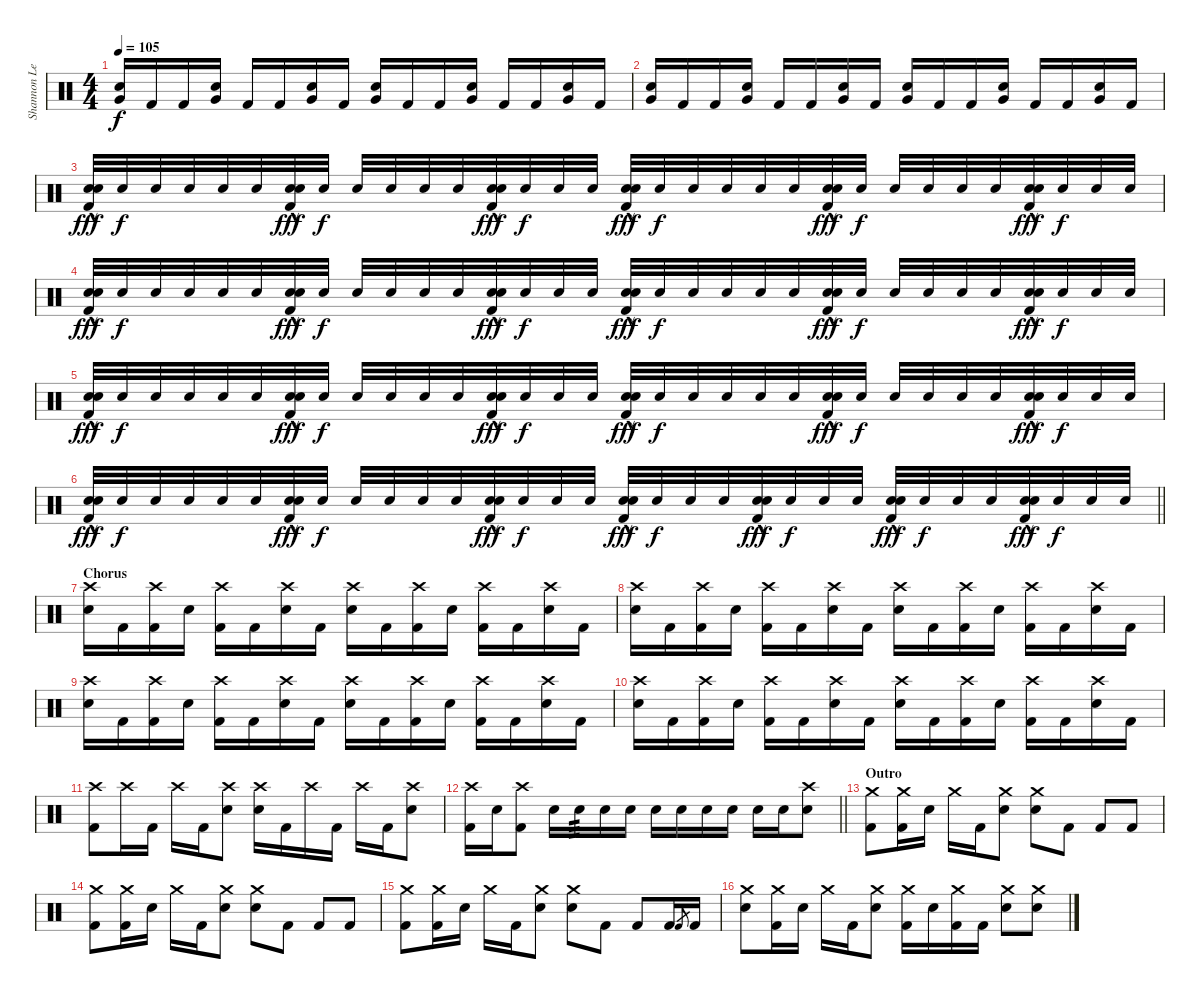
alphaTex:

\track ("Shannon Leto - Drums" "Shannon Le") {instrument percussion}
\staff {score}
\articulation defaults
\ts (4 4)
\tempo 105
\clef neutral
\ks c
("Electric Snare (hit)" "Very Low Tom (hit)").16{dy f} "Kick (hit) 2".16 "Kick (hit) 2".16 ("Electric Snare (hit)" "Very Low Tom (hit)").16 "Kick (hit) 2".16 "Kick (hit) 2".16 ("Electric Snare (hit)" "Very Low Tom (hit)").16 "Kick (hit) 2".16 ("Electric Snare (hit)" "Very Low Tom (hit)").16 "Kick (hit) 2".16 "Kick (hit) 2".16 ("Electric Snare (hit)" "Very Low Tom (hit)").16 "Kick (hit) 2".16 "Kick (hit) 2".16 ("Electric Snare (hit)" "Very Low Tom (hit)").16 "Kick (hit) 2".16 |
("Electric Snare (hit)" "Very Low Tom (hit)").16 "Kick (hit) 2".16 "Kick (hit) 2".16 ("Electric Snare (hit)" "Very Low Tom (hit)").16 "Kick (hit) 2".16 "Kick (hit) 2".16 ("Electric Snare (hit)" "Very Low Tom (hit)").16 "Kick (hit) 2".16 ("Electric Snare (hit)" "Very Low Tom (hit)").16 "Kick (hit) 2".16 "Kick (hit) 2".16 ("Electric Snare (hit)" "Very Low Tom (hit)").16 "Kick (hit) 2".16 "Kick (hit) 2".16 ("Electric Snare (hit)" "Very Low Tom (hit)").16 "Kick (hit) 2".16 |
("Electric Snare (hit)"{hac} "Electric Snare (hit)"{hac} "Kick (hit) 2").32{dy fff} "Electric Snare (hit)".32{dy f} "Electric Snare (hit)".32 "Electric Snare (hit)".32 "Electric Snare (hit)".32 "Electric Snare (hit)".32 ("Electric Snare (hit)"{hac} "Electric Snare (hit)"{hac} "Kick (hit) 2").32{dy fff} "Electric Snare (hit)".32{dy f} "Electric Snare (hit)".32 "Electric Snare (hit)".32 "Electric Snare (hit)".32 "Electric Snare (hit)".32 ("Electric Snare (hit)"{hac} "Electric Snare (hit)"{hac} "Kick (hit) 2").32{dy fff} "Electric Snare (hit)".32{dy f} "Electric Snare (hit)".32 "Electric Snare (hit)".32 ("Electric Snare (hit)"{hac} "Electric Snare (hit)"{hac} "Kick (hit) 2").32{dy fff} "Electric Snare (hit)".32{dy f} "Electric Snare (hit)".32 "Electric Snare (hit)".32 "Electric Snare (hit)".32 "Electric Snare (hit)".32 ("Electric Snare (hit)"{hac} "Electric Snare (hit)"{hac} "Kick (hit) 2").32{dy fff} "Electric Snare (hit)".32{dy f} "Electric Snare (hit)".32 "Electric Snare (hit)".32 "Electric Snare (hit)".32 "Electric Snare (hit)".32 ("Electric Snare (hit)"{hac} "Electric Snare (hit)"{hac} "Kick (hit) 2").32{dy fff} "Electric Snare (hit)".32{dy f} "Electric Snare (hit)".32 "Electric Snare (hit)".32 |
("Electric Snare (hit)"{hac} "Electric Snare (hit)"{hac} "Kick (hit) 2").32{dy fff} "Electric Snare (hit)".32{dy f} "Electric Snare (hit)".32 "Electric Snare (hit)".32 "Electric Snare (hit)".32 "Electric Snare (hit)".32 ("Electric Snare (hit)"{hac} "Electric Snare (hit)"{hac} "Kick (hit) 2").32{dy fff} "Electric Snare (hit)".32{dy f} "Electric Snare (hit)".32 "Electric Snare (hit)".32 "Electric Snare (hit)".32 "Electric Snare (hit)".32 ("Electric Snare (hit)"{hac} "Electric Snare (hit)"{hac} "Kick (hit) 2").32{dy fff} "Electric Snare (hit)".32{dy f} "Electric Snare (hit)".32 "Electric Snare (hit)".32 ("Electric Snare (hit)"{hac} "Electric Snare (hit)"{hac} "Kick (hit) 2").32{dy fff} "Electric Snare (hit)".32{dy f} "Electric Snare (hit)".32 "Electric Snare (hit)".32 "Electric Snare (hit)".32 "Electric Snare (hit)".32 ("Electric Snare (hit)"{hac} "Electric Snare (hit)"{hac} "Kick (hit) 2").32{dy fff} "Electric Snare (hit)".32{dy f} "Electric Snare (hit)".32 "Electric Snare (hit)".32 "Electric Snare (hit)".32 "Electric Snare (hit)".32 ("Electric Snare (hit)"{hac} "Electric Snare (hit)"{hac} "Kick (hit) 2").32{dy fff} "Electric Snare (hit)".32{dy f} "Electric Snare (hit)".32 "Electric Snare (hit)".32 |
("Electric Snare (hit)"{hac} "Electric Snare (hit)"{hac} "Kick (hit) 2").32{dy fff} "Electric Snare (hit)".32{dy f} "Electric Snare (hit)".32 "Electric Snare (hit)".32 "Electric Snare (hit)".32 "Electric Snare (hit)".32 ("Electric Snare (hit)"{hac} "Electric Snare (hit)"{hac} "Kick (hit) 2").32{dy fff} "Electric Snare (hit)".32{dy f} "Electric Snare (hit)".32 "Electric Snare (hit)".32 "Electric Snare (hit)".32 "Electric Snare (hit)".32 ("Electric Snare (hit)"{hac} "Electric Snare (hit)"{hac} "Kick (hit) 2").32{dy fff} "Electric Snare (hit)".32{dy f} "Electric Snare (hit)".32 "Electric Snare (hit)".32 ("Electric Snare (hit)"{hac} "Electric Snare (hit)"{hac} "Kick (hit) 2").32{dy fff} "Electric Snare (hit)".32{dy f} "Electric Snare (hit)".32 "Electric Snare (hit)".32 "Electric Snare (hit)".32 "Electric Snare (hit)".32 ("Electric Snare (hit)"{hac} "Electric Snare (hit)"{hac} "Kick (hit) 2").32{dy fff} "Electric Snare (hit)".32{dy f} "Electric Snare (hit)".32 "Electric Snare (hit)".32 "Electric Snare (hit)".32 "Electric Snare (hit)".32 ("Electric Snare (hit)"{hac} "Electric Snare (hit)"{hac} "Kick (hit) 2").32{dy fff} "Electric Snare (hit)".32{dy f} "Electric Snare (hit)".32 "Electric Snare (hit)".32 |
\barLineRight lightlight
("Electric Snare (hit)"{hac} "Electric Snare (hit)"{hac} "Kick (hit) 2").32{dy fff} "Electric Snare (hit)".32{dy f} "Electric Snare (hit)".32 "Electric Snare (hit)".32 "Electric Snare (hit)".32 "Electric Snare (hit)".32 ("Electric Snare (hit)"{hac} "Electric Snare (hit)"{hac} "Kick (hit) 2").32{dy fff} "Electric Snare (hit)".32{dy f} "Electric Snare (hit)".32 "Electric Snare (hit)".32 "Electric Snare (hit)".32 "Electric Snare (hit)".32 ("Electric Snare (hit)"{hac} "Electric Snare (hit)"{hac} "Kick (hit) 2").32{dy fff} "Electric Snare (hit)".32{dy f} "Electric Snare (hit)".32 "Electric Snare (hit)".32 ("Electric Snare (hit)"{hac} "Electric Snare (hit)"{hac} "Kick (hit) 2").32{dy fff} "Electric Snare (hit)".32{dy f} "Electric Snare (hit)".32 "Electric Snare (hit)".32 ("Electric Snare (hit)"{hac} "Electric Snare (hit)"{hac} "Kick (hit) 2").32{dy fff} "Electric Snare (hit)".32{dy f} "Electric Snare (hit)".32 "Electric Snare (hit)".32 ("Electric Snare (hit)"{hac} "Electric Snare (hit)"{hac} "Kick (hit) 2").32{dy fff} "Electric Snare (hit)".32{dy f} "Electric Snare (hit)".32 "Electric Snare (hit)".32 ("Electric Snare (hit)"{hac} "Electric Snare (hit)"{hac} "Kick (hit) 2").32{dy fff} "Electric Snare (hit)".32{dy f} "Electric Snare (hit)".32 "Electric Snare (hit)".32 |
\section ("" "Chorus")
("Crash high (hit)" "Electric Snare (hit)").16 "Kick (hit) 2".16 ("Crash high (hit)" "Kick (hit) 2").16 "Electric Snare (hit)".16 ("Crash high (hit)" "Kick (hit) 2").16 "Kick (hit) 2".16 ("Crash high (hit)" "Electric Snare (hit)").16 "Kick (hit) 2".16 ("Crash high (hit)" "Electric Snare (hit)").16 "Kick (hit) 2".16 ("Crash high (hit)" "Kick (hit) 2").16 "Electric Snare (hit)".16 ("Crash high (hit)" "Kick (hit) 2").16 "Kick (hit) 2".16 ("Crash high (hit)" "Electric Snare (hit)").16 "Kick (hit) 2".16 |
("Crash high (hit)" "Electric Snare (hit)").16 "Kick (hit) 2".16 ("Crash high (hit)" "Kick (hit) 2").16 "Electric Snare (hit)".16 ("Crash high (hit)" "Kick (hit) 2").16 "Kick (hit) 2".16 ("Crash high (hit)" "Electric Snare (hit)").16 "Kick (hit) 2".16 ("Crash high (hit)" "Electric Snare (hit)").16 "Kick (hit) 2".16 ("Crash high (hit)" "Kick (hit) 2").16 "Electric Snare (hit)".16 ("Crash high (hit)" "Kick (hit) 2").16 "Kick (hit) 2".16 ("Crash high (hit)" "Electric Snare (hit)").16 "Kick (hit) 2".16 |
("Crash high (hit)" "Electric Snare (hit)").16 "Kick (hit) 2".16 ("Crash high (hit)" "Kick (hit) 2").16 "Electric Snare (hit)".16 ("Crash high (hit)" "Kick (hit) 2").16 "Kick (hit) 2".16 ("Crash high (hit)" "Electric Snare (hit)").16 "Kick (hit) 2".16 ("Crash high (hit)" "Electric Snare (hit)").16 "Kick (hit) 2".16 ("Crash high (hit)" "Kick (hit) 2").16 "Electric Snare (hit)".16 ("Crash high (hit)" "Kick (hit) 2").16 "Kick (hit) 2".16 ("Crash high (hit)" "Electric Snare (hit)").16 "Kick (hit) 2".16 |
("Crash high (hit)" "Electric Snare (hit)").16 "Kick (hit) 2".16 ("Crash high (hit)" "Kick (hit) 2").16 "Electric Snare (hit)".16 ("Crash high (hit)" "Kick (hit) 2").16 "Kick (hit) 2".16 ("Crash high (hit)" "Electric Snare (hit)").16 "Kick (hit) 2".16 ("Crash high (hit)" "Electric Snare (hit)").16 "Kick (hit) 2".16 ("Crash high (hit)" "Kick (hit) 2").16 "Electric Snare (hit)".16 ("Crash high (hit)" "Kick (hit) 2").16 "Kick (hit) 2".16 ("Crash high (hit)" "Electric Snare (hit)").16 "Kick (hit) 2".16 |
("Crash high (hit)" "Kick (hit) 2").8 "Crash high (hit)".16 "Kick (hit) 2".16 "Crash high (hit)".16 "Kick (hit) 2".16 ("Crash high (hit)" "Electric Snare (hit)").8 ("Crash high (hit)" "Electric Snare (hit)").16 "Kick (hit) 2".16 "Crash high (hit)".16 "Kick (hit) 2".16 "Crash high (hit)".16 "Kick (hit) 2".16 ("Crash high (hit)" "Electric Snare (hit)").8 |
\barLineRight lightlight
("Crash high (hit)" "Kick (hit) 2").16 "Electric Snare (hit)".16 ("Crash high (hit)" "Kick (hit) 2").8 "Electric Snare (hit)".16 "Electric Snare (hit)".16{tp 3} "Electric Snare (hit)".16 "Electric Snare (hit)".16 "Electric Snare (hit)".16 "Electric Snare (hit)".16 "Electric Snare (hit)".16 "Electric Snare (hit)".16 "Electric Snare (hit)".16 "Electric Snare (hit)".16 ("Crash high (hit)" "Electric Snare (hit)").8 |
\section ("" "Outro")
("Crash medium (hit)" "Kick (hit) 2").8 ("Crash medium (hit)" "Kick (hit) 2").16 "Electric Snare (hit)".16 "Crash medium (hit)".16 "Kick (hit) 2".16 ("Crash medium (hit)" "Electric Snare (hit)").8 ("Crash medium (hit)" "Electric Snare (hit)").8 "Kick (hit) 2".8 "Kick (hit) 2".8 "Kick (hit) 2".8 |
("Crash medium (hit)" "Kick (hit) 2").8 ("Crash medium (hit)" "Kick (hit) 2").16 "Electric Snare (hit)".16 "Crash medium (hit)".16 "Kick (hit) 2".16 ("Crash medium (hit)" "Electric Snare (hit)").8 ("Crash medium (hit)" "Electric Snare (hit)").8 "Kick (hit) 2".8 "Kick (hit) 2".8 "Kick (hit) 2".8 |
("Crash medium (hit)" "Kick (hit) 2").8 ("Crash medium (hit)" "Kick (hit) 2").16 "Electric Snare (hit)".16 "Crash medium (hit)".16 "Kick (hit) 2".16 ("Crash medium (hit)" "Electric Snare (hit)").8 ("Crash medium (hit)" "Electric Snare (hit)").8 "Kick (hit) 2".8 "Kick (hit) 2".8 "Kick (hit) 2".16 "Kick (hit) 2".8{gr} "Kick (hit) 2".16 |
("Crash medium (hit)" "Electric Snare (hit)").8 ("Crash medium (hit)" "Kick (hit) 2").16 "Electric Snare (hit)".16 "Crash medium (hit)".16 "Kick (hit) 2".16 ("Crash medium (hit)" "Electric Snare (hit)").8 ("Crash medium (hit)" "Kick (hit) 2").16 "Electric Snare (hit)".16 ("Crash medium (hit)" "Kick (hit) 2").16 "Kick (hit) 2".16 ("Crash medium (hit)" "Electric Snare (hit)").8 ("Crash medium (hit)" "Electric Snare (hit)").8
